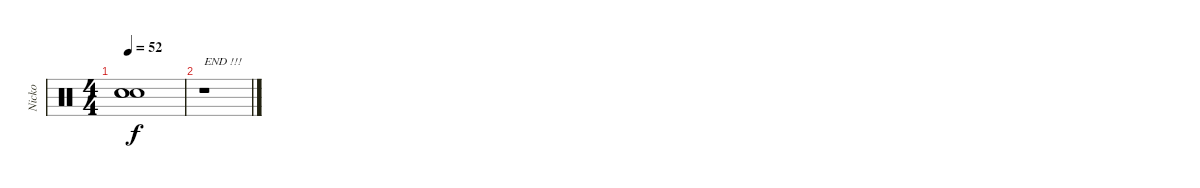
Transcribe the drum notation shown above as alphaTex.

\track ("Nicko" "Nicko") {instrument percussion}
\staff {score}
\articulation defaults
\ts (4 4)
\tempo 52
\clef neutral
\ks c
("Snare (hit)"{t} "Snare (hit)"{t} "Snare (hit)"{t}).1{dy f} |
r.1{txt "END !!!"}
